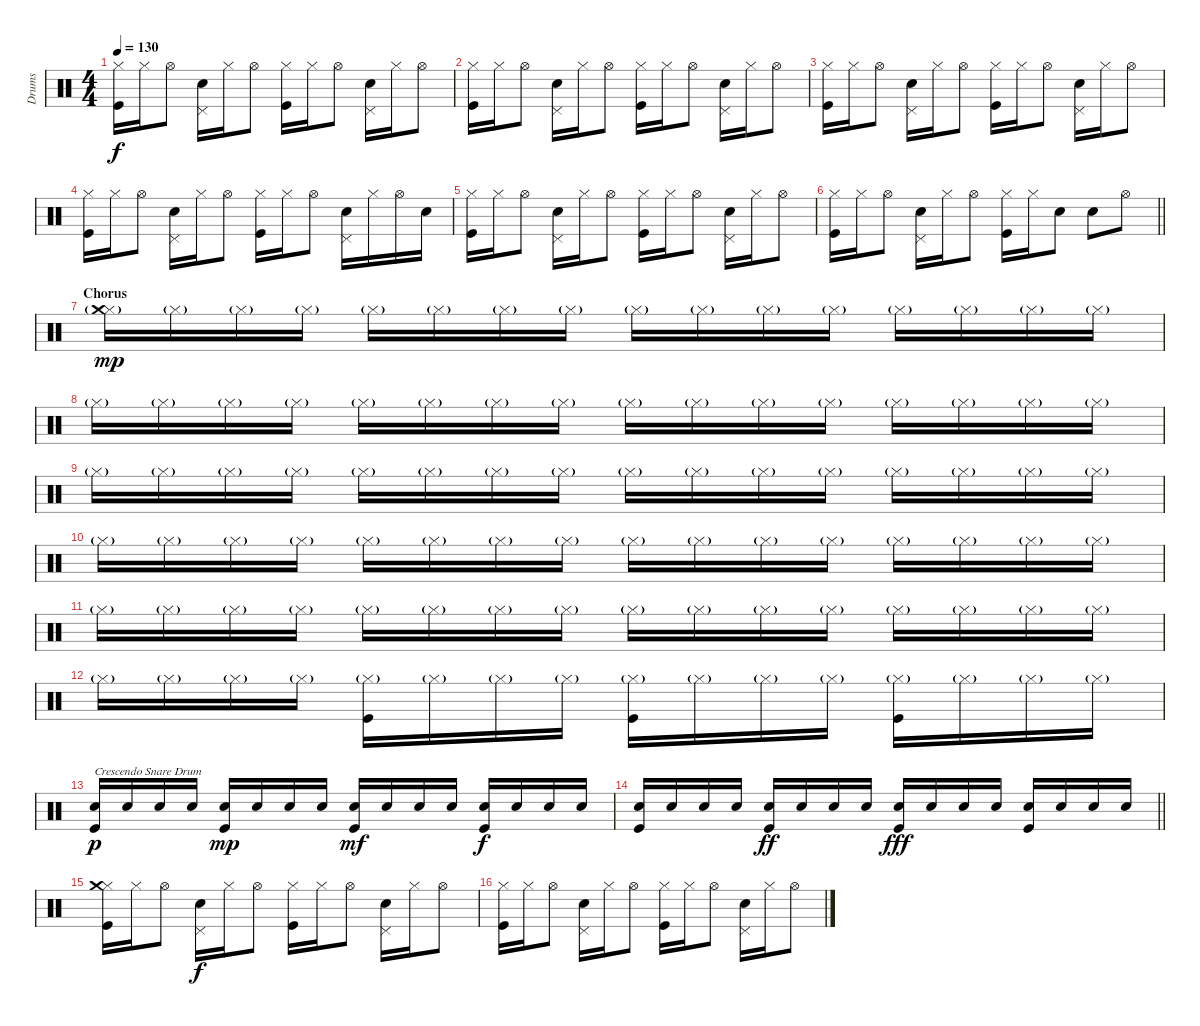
\track ("Drums" "Drums") {instrument percussion}
\staff {score}
\articulation defaults
\ts (4 4)
\tempo 130
\clef neutral
\ks c
("Hi-Hat (closed)" "Kick (hit)").16{dy f} "Hi-Hat (closed)".16 "Hi-Hat (open)".8 ("Pedal Hi-Hat (hit)" "Electric Snare (hit)").16 "Hi-Hat (closed)".16 "Hi-Hat (open)".8 ("Hi-Hat (closed)" "Kick (hit)").16 "Hi-Hat (closed)".16 "Hi-Hat (open)".8 ("Pedal Hi-Hat (hit)" "Electric Snare (hit)").16 "Hi-Hat (closed)".16 "Hi-Hat (open)".8 |
("Hi-Hat (closed)" "Kick (hit)").16 "Hi-Hat (closed)".16 "Hi-Hat (open)".8 ("Pedal Hi-Hat (hit)" "Electric Snare (hit)").16 "Hi-Hat (closed)".16 "Hi-Hat (open)".8 ("Hi-Hat (closed)" "Kick (hit)").16 "Hi-Hat (closed)".16 "Hi-Hat (open)".8 ("Pedal Hi-Hat (hit)" "Electric Snare (hit)").16 "Hi-Hat (closed)".16 "Hi-Hat (open)".8 |
("Hi-Hat (closed)" "Kick (hit)").16 "Hi-Hat (closed)".16 "Hi-Hat (open)".8 ("Pedal Hi-Hat (hit)" "Electric Snare (hit)").16 "Hi-Hat (closed)".16 "Hi-Hat (open)".8 ("Hi-Hat (closed)" "Kick (hit)").16 "Hi-Hat (closed)".16 "Hi-Hat (open)".8 ("Pedal Hi-Hat (hit)" "Electric Snare (hit)").16 "Hi-Hat (closed)".16 "Hi-Hat (open)".8 |
("Hi-Hat (closed)" "Kick (hit)").16 "Hi-Hat (closed)".16 "Hi-Hat (open)".8 ("Pedal Hi-Hat (hit)" "Electric Snare (hit)").16 "Hi-Hat (closed)".16 "Hi-Hat (open)".8 ("Hi-Hat (closed)" "Kick (hit)").16 "Hi-Hat (closed)".16 "Hi-Hat (open)".8 ("Pedal Hi-Hat (hit)" "Electric Snare (hit)").16 "Hi-Hat (closed)".16 "Hi-Hat (open)".16 "Electric Snare (hit)".16 |
("Hi-Hat (closed)" "Kick (hit)").16 "Hi-Hat (closed)".16 "Hi-Hat (open)".8 ("Pedal Hi-Hat (hit)" "Electric Snare (hit)").16 "Hi-Hat (closed)".16 "Hi-Hat (open)".8 ("Hi-Hat (closed)" "Kick (hit)").16 "Hi-Hat (closed)".16 "Hi-Hat (open)".8 ("Pedal Hi-Hat (hit)" "Electric Snare (hit)").16 "Hi-Hat (closed)".16 "Hi-Hat (open)".8 |
\barLineRight lightlight
("Hi-Hat (closed)" "Kick (hit)").16 "Hi-Hat (closed)".16 "Hi-Hat (open)".8 ("Pedal Hi-Hat (hit)" "Electric Snare (hit)").16 "Hi-Hat (closed)".16 "Hi-Hat (open)".8 ("Hi-Hat (closed)" "Kick (hit)").16 "Hi-Hat (closed)".16 "Electric Snare (hit)".8 "Electric Snare (hit)".8 "Hi-Hat (open)".8 |
\section ("" "Chorus")
("Hi-Hat (closed)"{g} "Crash medium (hit)").16{dy mp} "Hi-Hat (closed)"{g}.16 "Hi-Hat (closed)"{g}.16 "Hi-Hat (closed)"{g}.16 "Hi-Hat (closed)"{g}.16 "Hi-Hat (closed)"{g}.16 "Hi-Hat (closed)"{g}.16 "Hi-Hat (closed)"{g}.16 "Hi-Hat (closed)"{g}.16 "Hi-Hat (closed)"{g}.16 "Hi-Hat (closed)"{g}.16 "Hi-Hat (closed)"{g}.16 "Hi-Hat (closed)"{g}.16 "Hi-Hat (closed)"{g}.16 "Hi-Hat (closed)"{g}.16 "Hi-Hat (closed)"{g}.16 |
"Hi-Hat (closed)"{g}.16 "Hi-Hat (closed)"{g}.16 "Hi-Hat (closed)"{g}.16 "Hi-Hat (closed)"{g}.16 "Hi-Hat (closed)"{g}.16 "Hi-Hat (closed)"{g}.16 "Hi-Hat (closed)"{g}.16 "Hi-Hat (closed)"{g}.16 "Hi-Hat (closed)"{g}.16 "Hi-Hat (closed)"{g}.16 "Hi-Hat (closed)"{g}.16 "Hi-Hat (closed)"{g}.16 "Hi-Hat (closed)"{g}.16 "Hi-Hat (closed)"{g}.16 "Hi-Hat (closed)"{g}.16 "Hi-Hat (closed)"{g}.16 |
"Hi-Hat (closed)"{g}.16 "Hi-Hat (closed)"{g}.16 "Hi-Hat (closed)"{g}.16 "Hi-Hat (closed)"{g}.16 "Hi-Hat (closed)"{g}.16 "Hi-Hat (closed)"{g}.16 "Hi-Hat (closed)"{g}.16 "Hi-Hat (closed)"{g}.16 "Hi-Hat (closed)"{g}.16 "Hi-Hat (closed)"{g}.16 "Hi-Hat (closed)"{g}.16 "Hi-Hat (closed)"{g}.16 "Hi-Hat (closed)"{g}.16 "Hi-Hat (closed)"{g}.16 "Hi-Hat (closed)"{g}.16 "Hi-Hat (closed)"{g}.16 |
"Hi-Hat (closed)"{g}.16 "Hi-Hat (closed)"{g}.16 "Hi-Hat (closed)"{g}.16 "Hi-Hat (closed)"{g}.16 "Hi-Hat (closed)"{g}.16 "Hi-Hat (closed)"{g}.16 "Hi-Hat (closed)"{g}.16 "Hi-Hat (closed)"{g}.16 "Hi-Hat (closed)"{g}.16 "Hi-Hat (closed)"{g}.16 "Hi-Hat (closed)"{g}.16 "Hi-Hat (closed)"{g}.16 "Hi-Hat (closed)"{g}.16 "Hi-Hat (closed)"{g}.16 "Hi-Hat (closed)"{g}.16 "Hi-Hat (closed)"{g}.16 |
"Hi-Hat (closed)"{g}.16 "Hi-Hat (closed)"{g}.16 "Hi-Hat (closed)"{g}.16 "Hi-Hat (closed)"{g}.16 "Hi-Hat (closed)"{g}.16 "Hi-Hat (closed)"{g}.16 "Hi-Hat (closed)"{g}.16 "Hi-Hat (closed)"{g}.16 "Hi-Hat (closed)"{g}.16 "Hi-Hat (closed)"{g}.16 "Hi-Hat (closed)"{g}.16 "Hi-Hat (closed)"{g}.16 "Hi-Hat (closed)"{g}.16 "Hi-Hat (closed)"{g}.16 "Hi-Hat (closed)"{g}.16 "Hi-Hat (closed)"{g}.16 |
"Hi-Hat (closed)"{g}.16 "Hi-Hat (closed)"{g}.16 "Hi-Hat (closed)"{g}.16 "Hi-Hat (closed)"{g}.16 ("Hi-Hat (closed)"{g} "Kick (hit)").16 "Hi-Hat (closed)"{g}.16 "Hi-Hat (closed)"{g}.16 "Hi-Hat (closed)"{g}.16 ("Hi-Hat (closed)"{g} "Kick (hit)").16 "Hi-Hat (closed)"{g}.16 "Hi-Hat (closed)"{g}.16 "Hi-Hat (closed)"{g}.16 ("Hi-Hat (closed)"{g} "Kick (hit)").16 "Hi-Hat (closed)"{g}.16 "Hi-Hat (closed)"{g}.16 "Hi-Hat (closed)"{g}.16 |
("Electric Snare (hit)" "Kick (hit)").16{txt "Crescendo Snare Drum" dy p} "Electric Snare (hit)".16 "Electric Snare (hit)".16 "Electric Snare (hit)".16 ("Electric Snare (hit)" "Kick (hit)").16{dy mp} "Electric Snare (hit)".16 "Electric Snare (hit)".16 "Electric Snare (hit)".16 ("Electric Snare (hit)" "Kick (hit)").16{dy mf} "Electric Snare (hit)".16 "Electric Snare (hit)".16 "Electric Snare (hit)".16 ("Electric Snare (hit)" "Kick (hit)").16{dy f} "Electric Snare (hit)".16 "Electric Snare (hit)".16 "Electric Snare (hit)".16 |
\barLineRight lightlight
("Electric Snare (hit)" "Kick (hit)").16 "Electric Snare (hit)".16 "Electric Snare (hit)".16 "Electric Snare (hit)".16 ("Electric Snare (hit)" "Kick (hit)").16{dy ff} "Electric Snare (hit)".16 "Electric Snare (hit)".16 "Electric Snare (hit)".16 ("Electric Snare (hit)" "Kick (hit)").16{dy fff} "Electric Snare (hit)".16 "Electric Snare (hit)".16 "Electric Snare (hit)".16 ("Electric Snare (hit)" "Kick (hit)").16 "Electric Snare (hit)".16 "Electric Snare (hit)".16 "Electric Snare (hit)".16 |
("Hi-Hat (closed)" "Crash medium (hit)" "Kick (hit)").16 "Hi-Hat (closed)".16 "Hi-Hat (open)".8 ("Pedal Hi-Hat (hit)" "Electric Snare (hit)").16{dy f} "Hi-Hat (closed)".16 "Hi-Hat (open)".8 ("Hi-Hat (closed)" "Kick (hit)").16 "Hi-Hat (closed)".16 "Hi-Hat (open)".8 ("Pedal Hi-Hat (hit)" "Electric Snare (hit)").16 "Hi-Hat (closed)".16 "Hi-Hat (open)".8 |
("Hi-Hat (closed)" "Kick (hit)").16 "Hi-Hat (closed)".16 "Hi-Hat (open)".8 ("Pedal Hi-Hat (hit)" "Electric Snare (hit)").16 "Hi-Hat (closed)".16 "Hi-Hat (open)".8 ("Hi-Hat (closed)" "Kick (hit)").16 "Hi-Hat (closed)".16 "Hi-Hat (open)".8 ("Pedal Hi-Hat (hit)" "Electric Snare (hit)").16 "Hi-Hat (closed)".16 "Hi-Hat (open)".8
